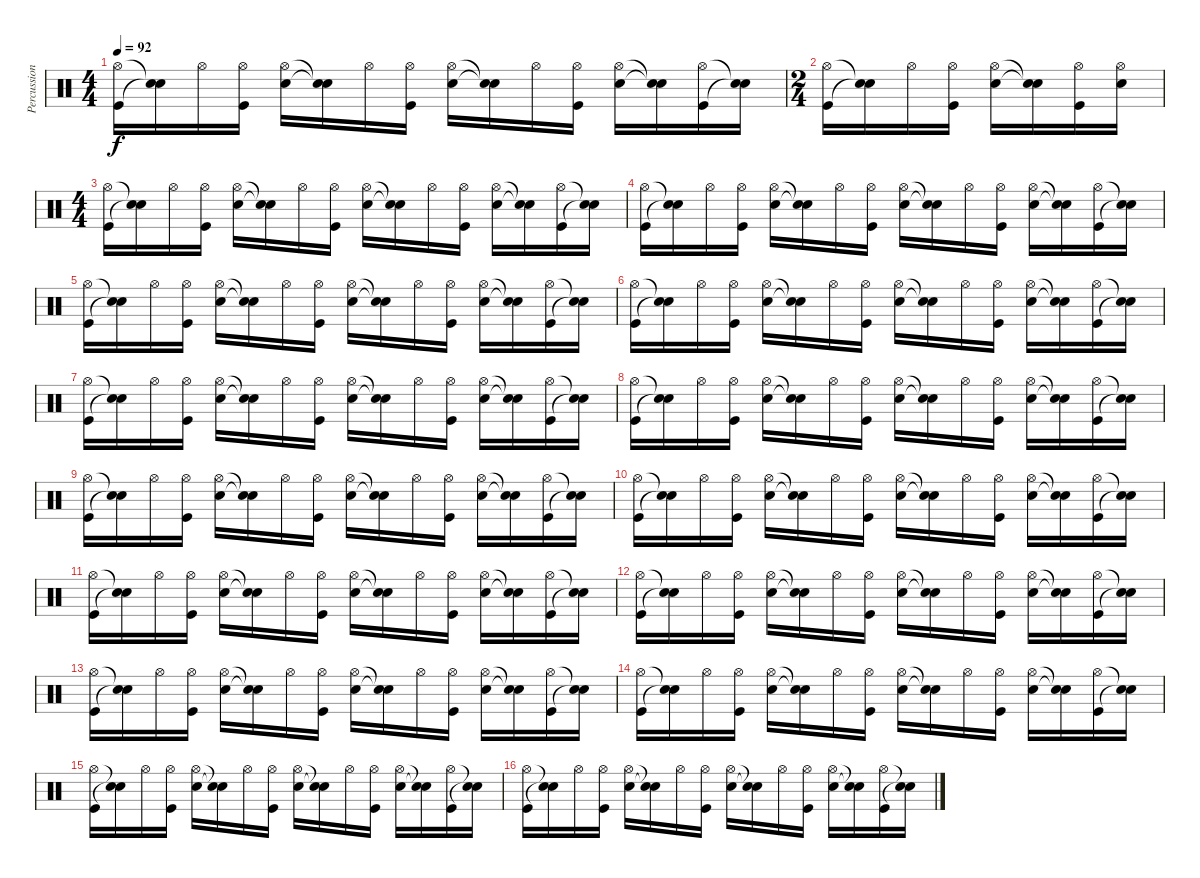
\track ("Percussion" "Percussion") {instrument percussion}
\staff {score}
\articulation defaults
\ts (4 4)
\tempo 92
\clef neutral
\ks c
("Hi-Hat (open)" "Kick (hit)").16{dy f} ("Snare (hit)"{t} "Snare (hit)"{t}).16 "Hi-Hat (open)".16 ("Hi-Hat (open)" "Kick (hit)").16 ("Hi-Hat (open)" "Snare (hit) 2").16 ("Snare (hit)"{t} "Snare (hit)"{t}).16 "Hi-Hat (open)".16 ("Hi-Hat (open)" "Kick (hit)").16 ("Hi-Hat (open)" "Snare (hit) 2").16 ("Snare (hit)"{t} "Snare (hit)"{t}).16 "Hi-Hat (open)".16 ("Hi-Hat (open)" "Kick (hit)").16 ("Hi-Hat (open)" "Snare (hit) 2").16 ("Snare (hit)"{t} "Snare (hit)"{t}).16 ("Hi-Hat (open)" "Kick (hit)").16 ("Snare (hit)"{t} "Snare (hit)"{t}).16 |
\ts (2 4)
("Hi-Hat (open)" "Kick (hit)").16 ("Snare (hit)"{t} "Snare (hit)"{t}).16 "Hi-Hat (open)".16 ("Hi-Hat (open)" "Kick (hit)").16 ("Hi-Hat (open)" "Snare (hit) 2").16 ("Snare (hit)"{t} "Snare (hit)"{t}).16 ("Hi-Hat (open)" "Kick (hit)").16 ("Hi-Hat (open)" "Snare (hit) 2").16 |
\ts (4 4)
("Hi-Hat (open)" "Kick (hit)").16 ("Snare (hit)"{t} "Snare (hit)"{t}).16 "Hi-Hat (open)".16 ("Hi-Hat (open)" "Kick (hit)").16 ("Hi-Hat (open)" "Snare (hit) 2").16 ("Snare (hit)"{t} "Snare (hit)"{t}).16 "Hi-Hat (open)".16 ("Hi-Hat (open)" "Kick (hit)").16 ("Hi-Hat (open)" "Snare (hit) 2").16 ("Snare (hit)"{t} "Snare (hit)"{t}).16 "Hi-Hat (open)".16 ("Hi-Hat (open)" "Kick (hit)").16 ("Hi-Hat (open)" "Snare (hit) 2").16 ("Snare (hit)"{t} "Snare (hit)"{t}).16 ("Hi-Hat (open)" "Kick (hit)").16 ("Snare (hit)"{t} "Snare (hit)"{t}).16 |
("Hi-Hat (open)" "Kick (hit)").16 ("Snare (hit)"{t} "Snare (hit)"{t}).16 "Hi-Hat (open)".16 ("Hi-Hat (open)" "Kick (hit)").16 ("Hi-Hat (open)" "Snare (hit) 2").16 ("Snare (hit)"{t} "Snare (hit)"{t}).16 "Hi-Hat (open)".16 ("Hi-Hat (open)" "Kick (hit)").16 ("Hi-Hat (open)" "Snare (hit) 2").16 ("Snare (hit)"{t} "Snare (hit)"{t}).16 "Hi-Hat (open)".16 ("Hi-Hat (open)" "Kick (hit)").16 ("Hi-Hat (open)" "Snare (hit) 2").16 ("Snare (hit)"{t} "Snare (hit)"{t}).16 ("Hi-Hat (open)" "Kick (hit)").16 ("Snare (hit)"{t} "Snare (hit)"{t}).16 |
("Hi-Hat (open)" "Kick (hit)").16 ("Snare (hit)"{t} "Snare (hit)"{t}).16 "Hi-Hat (open)".16 ("Hi-Hat (open)" "Kick (hit)").16 ("Hi-Hat (open)" "Snare (hit) 2").16 ("Snare (hit)"{t} "Snare (hit)"{t}).16 "Hi-Hat (open)".16 ("Hi-Hat (open)" "Kick (hit)").16 ("Hi-Hat (open)" "Snare (hit) 2").16 ("Snare (hit)"{t} "Snare (hit)"{t}).16 "Hi-Hat (open)".16 ("Hi-Hat (open)" "Kick (hit)").16 ("Hi-Hat (open)" "Snare (hit) 2").16 ("Snare (hit)"{t} "Snare (hit)"{t}).16 ("Hi-Hat (open)" "Kick (hit)").16 ("Snare (hit)"{t} "Snare (hit)"{t}).16 |
("Hi-Hat (open)" "Kick (hit)").16 ("Snare (hit)"{t} "Snare (hit)"{t}).16 "Hi-Hat (open)".16 ("Hi-Hat (open)" "Kick (hit)").16 ("Hi-Hat (open)" "Snare (hit) 2").16 ("Snare (hit)"{t} "Snare (hit)"{t}).16 "Hi-Hat (open)".16 ("Hi-Hat (open)" "Kick (hit)").16 ("Hi-Hat (open)" "Snare (hit) 2").16 ("Snare (hit)"{t} "Snare (hit)"{t}).16 "Hi-Hat (open)".16 ("Hi-Hat (open)" "Kick (hit)").16 ("Hi-Hat (open)" "Snare (hit) 2").16 ("Snare (hit)"{t} "Snare (hit)"{t}).16 ("Hi-Hat (open)" "Kick (hit)").16 ("Snare (hit)"{t} "Snare (hit)"{t}).16 |
("Hi-Hat (open)" "Kick (hit)").16 ("Snare (hit)"{t} "Snare (hit)"{t}).16 "Hi-Hat (open)".16 ("Hi-Hat (open)" "Kick (hit)").16 ("Hi-Hat (open)" "Snare (hit) 2").16 ("Snare (hit)"{t} "Snare (hit)"{t}).16 "Hi-Hat (open)".16 ("Hi-Hat (open)" "Kick (hit)").16 ("Hi-Hat (open)" "Snare (hit) 2").16 ("Snare (hit)"{t} "Snare (hit)"{t}).16 "Hi-Hat (open)".16 ("Hi-Hat (open)" "Kick (hit)").16 ("Hi-Hat (open)" "Snare (hit) 2").16 ("Snare (hit)"{t} "Snare (hit)"{t}).16 ("Hi-Hat (open)" "Kick (hit)").16 ("Snare (hit)"{t} "Snare (hit)"{t}).16 |
("Hi-Hat (open)" "Kick (hit)").16 ("Snare (hit)"{t} "Snare (hit)"{t}).16 "Hi-Hat (open)".16 ("Hi-Hat (open)" "Kick (hit)").16 ("Hi-Hat (open)" "Snare (hit) 2").16 ("Snare (hit)"{t} "Snare (hit)"{t}).16 "Hi-Hat (open)".16 ("Hi-Hat (open)" "Kick (hit)").16 ("Hi-Hat (open)" "Snare (hit) 2").16 ("Snare (hit)"{t} "Snare (hit)"{t}).16 "Hi-Hat (open)".16 ("Hi-Hat (open)" "Kick (hit)").16 ("Hi-Hat (open)" "Snare (hit) 2").16 ("Snare (hit)"{t} "Snare (hit)"{t}).16 ("Hi-Hat (open)" "Kick (hit)").16 ("Snare (hit)"{t} "Snare (hit)"{t}).16 |
("Hi-Hat (open)" "Kick (hit)").16 ("Snare (hit)"{t} "Snare (hit)"{t}).16 "Hi-Hat (open)".16 ("Hi-Hat (open)" "Kick (hit)").16 ("Hi-Hat (open)" "Snare (hit) 2").16 ("Snare (hit)"{t} "Snare (hit)"{t}).16 "Hi-Hat (open)".16 ("Hi-Hat (open)" "Kick (hit)").16 ("Hi-Hat (open)" "Snare (hit) 2").16 ("Snare (hit)"{t} "Snare (hit)"{t}).16 "Hi-Hat (open)".16 ("Hi-Hat (open)" "Kick (hit)").16 ("Hi-Hat (open)" "Snare (hit) 2").16 ("Snare (hit)"{t} "Snare (hit)"{t}).16 ("Hi-Hat (open)" "Kick (hit)").16 ("Snare (hit)"{t} "Snare (hit)"{t}).16 |
("Hi-Hat (open)" "Kick (hit)").16 ("Snare (hit)"{t} "Snare (hit)"{t}).16 "Hi-Hat (open)".16 ("Hi-Hat (open)" "Kick (hit)").16 ("Hi-Hat (open)" "Snare (hit) 2").16 ("Snare (hit)"{t} "Snare (hit)"{t}).16 "Hi-Hat (open)".16 ("Hi-Hat (open)" "Kick (hit)").16 ("Hi-Hat (open)" "Snare (hit) 2").16 ("Snare (hit)"{t} "Snare (hit)"{t}).16 "Hi-Hat (open)".16 ("Hi-Hat (open)" "Kick (hit)").16 ("Hi-Hat (open)" "Snare (hit) 2").16 ("Snare (hit)"{t} "Snare (hit)"{t}).16 ("Hi-Hat (open)" "Kick (hit)").16 ("Snare (hit)"{t} "Snare (hit)"{t}).16 |
("Hi-Hat (open)" "Kick (hit)").16 ("Snare (hit)"{t} "Snare (hit)"{t}).16 "Hi-Hat (open)".16 ("Hi-Hat (open)" "Kick (hit)").16 ("Hi-Hat (open)" "Snare (hit) 2").16 ("Snare (hit)"{t} "Snare (hit)"{t}).16 "Hi-Hat (open)".16 ("Hi-Hat (open)" "Kick (hit)").16 ("Hi-Hat (open)" "Snare (hit) 2").16 ("Snare (hit)"{t} "Snare (hit)"{t}).16 "Hi-Hat (open)".16 ("Hi-Hat (open)" "Kick (hit)").16 ("Hi-Hat (open)" "Snare (hit) 2").16 ("Snare (hit)"{t} "Snare (hit)"{t}).16 ("Hi-Hat (open)" "Kick (hit)").16 ("Snare (hit)"{t} "Snare (hit)"{t}).16 |
("Hi-Hat (open)" "Kick (hit)").16 ("Snare (hit)"{t} "Snare (hit)"{t}).16 "Hi-Hat (open)".16 ("Hi-Hat (open)" "Kick (hit)").16 ("Hi-Hat (open)" "Snare (hit) 2").16 ("Snare (hit)"{t} "Snare (hit)"{t}).16 "Hi-Hat (open)".16 ("Hi-Hat (open)" "Kick (hit)").16 ("Hi-Hat (open)" "Snare (hit) 2").16 ("Snare (hit)"{t} "Snare (hit)"{t}).16 "Hi-Hat (open)".16 ("Hi-Hat (open)" "Kick (hit)").16 ("Hi-Hat (open)" "Snare (hit) 2").16 ("Snare (hit)"{t} "Snare (hit)"{t}).16 ("Hi-Hat (open)" "Kick (hit)").16 ("Snare (hit)"{t} "Snare (hit)"{t}).16 |
("Hi-Hat (open)" "Kick (hit)").16 ("Snare (hit)"{t} "Snare (hit)"{t}).16 "Hi-Hat (open)".16 ("Hi-Hat (open)" "Kick (hit)").16 ("Hi-Hat (open)" "Snare (hit) 2").16 ("Snare (hit)"{t} "Snare (hit)"{t}).16 "Hi-Hat (open)".16 ("Hi-Hat (open)" "Kick (hit)").16 ("Hi-Hat (open)" "Snare (hit) 2").16 ("Snare (hit)"{t} "Snare (hit)"{t}).16 "Hi-Hat (open)".16 ("Hi-Hat (open)" "Kick (hit)").16 ("Hi-Hat (open)" "Snare (hit) 2").16 ("Snare (hit)"{t} "Snare (hit)"{t}).16 ("Hi-Hat (open)" "Kick (hit)").16 ("Snare (hit)"{t} "Snare (hit)"{t}).16 |
("Hi-Hat (open)" "Kick (hit)").16 ("Snare (hit)"{t} "Snare (hit)"{t}).16 "Hi-Hat (open)".16 ("Hi-Hat (open)" "Kick (hit)").16 ("Hi-Hat (open)" "Snare (hit) 2").16 ("Snare (hit)"{t} "Snare (hit)"{t}).16 "Hi-Hat (open)".16 ("Hi-Hat (open)" "Kick (hit)").16 ("Hi-Hat (open)" "Snare (hit) 2").16 ("Snare (hit)"{t} "Snare (hit)"{t}).16 "Hi-Hat (open)".16 ("Hi-Hat (open)" "Kick (hit)").16 ("Hi-Hat (open)" "Snare (hit) 2").16 ("Snare (hit)"{t} "Snare (hit)"{t}).16 ("Hi-Hat (open)" "Kick (hit)").16 ("Snare (hit)"{t} "Snare (hit)"{t}).16 |
("Hi-Hat (open)" "Kick (hit)").16 ("Snare (hit)"{t} "Snare (hit)"{t}).16 "Hi-Hat (open)".16 ("Hi-Hat (open)" "Kick (hit)").16 ("Hi-Hat (open)" "Snare (hit) 2").16 ("Snare (hit)"{t} "Snare (hit)"{t}).16 "Hi-Hat (open)".16 ("Hi-Hat (open)" "Kick (hit)").16 ("Hi-Hat (open)" "Snare (hit) 2").16 ("Snare (hit)"{t} "Snare (hit)"{t}).16 "Hi-Hat (open)".16 ("Hi-Hat (open)" "Kick (hit)").16 ("Hi-Hat (open)" "Snare (hit) 2").16 ("Snare (hit)"{t} "Snare (hit)"{t}).16 ("Hi-Hat (open)" "Kick (hit)").16 ("Snare (hit)"{t} "Snare (hit)"{t}).16 |
("Hi-Hat (open)" "Kick (hit)").16 ("Snare (hit)"{t} "Snare (hit)"{t}).16 "Hi-Hat (open)".16 ("Hi-Hat (open)" "Kick (hit)").16 ("Hi-Hat (open)" "Snare (hit) 2").16 ("Snare (hit)"{t} "Snare (hit)"{t}).16 "Hi-Hat (open)".16 ("Hi-Hat (open)" "Kick (hit)").16 ("Hi-Hat (open)" "Snare (hit) 2").16 ("Snare (hit)"{t} "Snare (hit)"{t}).16 "Hi-Hat (open)".16 ("Hi-Hat (open)" "Kick (hit)").16 ("Hi-Hat (open)" "Snare (hit) 2").16 ("Snare (hit)"{t} "Snare (hit)"{t}).16 ("Hi-Hat (open)" "Kick (hit)").16 ("Snare (hit)"{t} "Snare (hit)"{t}).16
